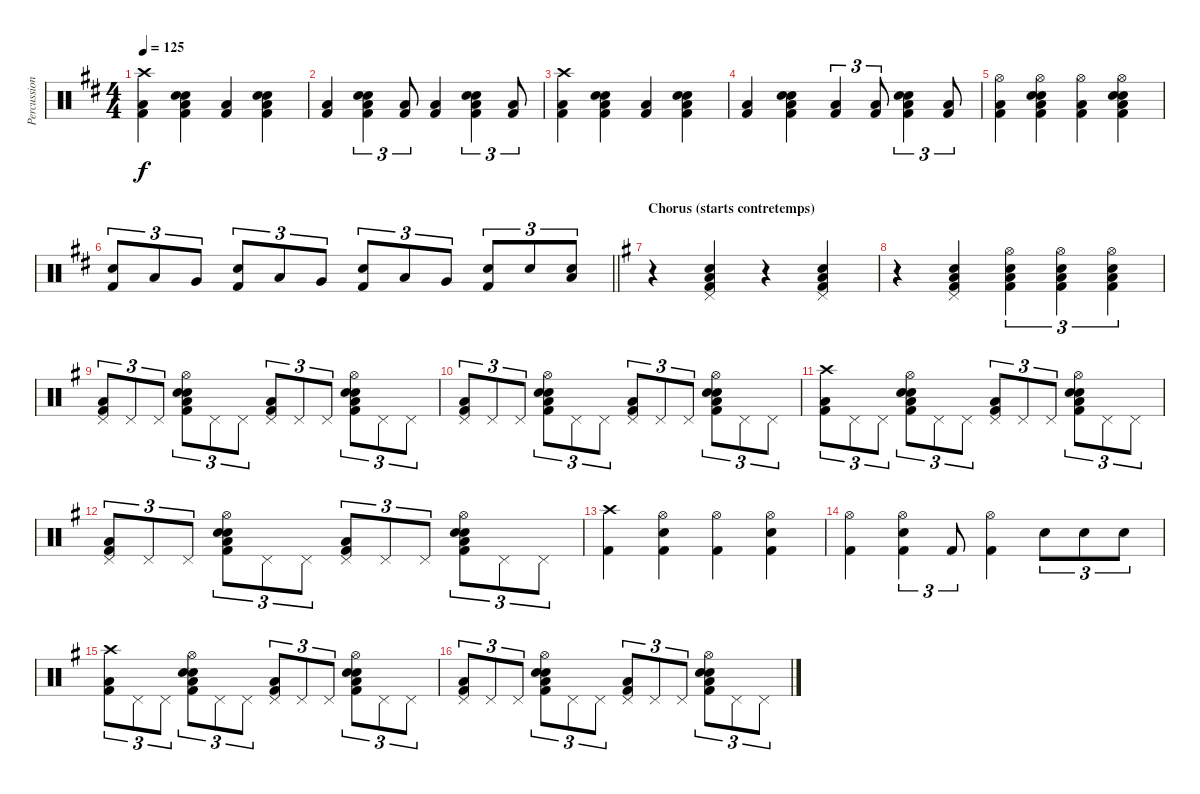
\track ("Percussion" "Percussion") {instrument percussion}
\staff {score}
\articulation defaults
\ts (4 4)
\tempo 125
\clef neutral
\ks bminor
("Crash high (hit)" "Low Floor Tom (hit)" "Kick (hit) 2").4{dy f} ("Electric Snare (hit)" "Hand Clap (hit)" "Low Floor Tom (hit)" "Kick (hit) 2").4 ("Low Floor Tom (hit)" "Kick (hit) 2").4 ("Electric Snare (hit)" "Hand Clap (hit)" "Low Floor Tom (hit)" "Kick (hit) 2").4 |
("Low Floor Tom (hit)" "Kick (hit) 2").4 ("Electric Snare (hit)" "Hand Clap (hit)" "Low Floor Tom (hit)" "Kick (hit) 2").4{tu (3 2)} ("Low Floor Tom (hit)" "Kick (hit) 2").8{tu (3 2)} ("Low Floor Tom (hit)" "Kick (hit) 2").4 ("Electric Snare (hit)" "Hand Clap (hit)" "Low Floor Tom (hit)" "Kick (hit) 2").4{tu (3 2)} ("Low Floor Tom (hit)" "Kick (hit) 2").8{tu (3 2)} |
("Crash high (hit)" "Low Floor Tom (hit)" "Kick (hit) 2").4 ("Electric Snare (hit)" "Hand Clap (hit)" "Low Floor Tom (hit)" "Kick (hit) 2").4 ("Low Floor Tom (hit)" "Kick (hit) 2").4 ("Electric Snare (hit)" "Hand Clap (hit)" "Low Floor Tom (hit)" "Kick (hit) 2").4 |
("Low Floor Tom (hit)" "Kick (hit) 2").4 ("Electric Snare (hit)" "Hand Clap (hit)" "Low Floor Tom (hit)" "Kick (hit) 2").4 ("Low Floor Tom (hit)" "Kick (hit) 2").4{tu (3 2)} ("Low Floor Tom (hit)" "Kick (hit) 2").8{tu (3 2)} ("Electric Snare (hit)" "Hand Clap (hit)" "Low Floor Tom (hit)" "Kick (hit) 2").4{tu (3 2)} ("Low Floor Tom (hit)" "Kick (hit) 2").8{tu (3 2)} |
("Hi-Hat (open)" "Low Floor Tom (hit)" "Kick (hit) 2").4 ("Hi-Hat (open)" "Electric Snare (hit)" "Hand Clap (hit)" "Low Floor Tom (hit)" "Kick (hit) 2").4 ("Hi-Hat (open)" "Low Floor Tom (hit)" "Kick (hit) 2").4 ("Hi-Hat (open)" "Electric Snare (hit)" "Hand Clap (hit)" "Low Floor Tom (hit)" "Kick (hit) 2").4 |
\barLineRight lightlight
("Electric Snare (hit)" "Kick (hit) 2").8{tu (3 2)} "Low Tom (hit)".8{tu (3 2)} "Very Low Tom (hit)".8{tu (3 2)} ("Electric Snare (hit)" "Kick (hit) 2").8{tu (3 2)} "Low Tom (hit)".8{tu (3 2)} "Very Low Tom (hit)".8{tu (3 2)} ("Electric Snare (hit)" "Kick (hit) 2").8{tu (3 2)} "Low Tom (hit)".8{tu (3 2)} "Very Low Tom (hit)".8{tu (3 2)} ("Electric Snare (hit)" "Kick (hit) 2").8{tu (3 2)} "Electric Snare (hit)".8{tu (3 2)} ("Electric Snare (hit)" "Low Floor Tom (hit)").8{tu (3 2)} |
\section ("" "Chorus (starts contretemps)")
\ks eminor
r.4 ("Pedal Hi-Hat (hit)" "Electric Snare (hit)" "Low Floor Tom (hit)" "Kick (hit) 2").4 r.4 ("Pedal Hi-Hat (hit)" "Electric Snare (hit)" "Low Floor Tom (hit)" "Kick (hit) 2").4 |
r.4 ("Pedal Hi-Hat (hit)" "Electric Snare (hit)" "Low Floor Tom (hit)" "Kick (hit) 2").4 ("Hi-Hat (open)" "Electric Snare (hit)" "Low Floor Tom (hit)" "Kick (hit) 2").4{tu (3 2)} ("Hi-Hat (open)" "Electric Snare (hit)" "Low Floor Tom (hit)" "Kick (hit) 2").4{tu (3 2)} ("Hi-Hat (open)" "Electric Snare (hit)" "Low Floor Tom (hit)" "Kick (hit) 2").4{tu (3 2)} |
("Pedal Hi-Hat (hit)" "Low Floor Tom (hit)" "Kick (hit) 2").8{tu (3 2)} "Pedal Hi-Hat (hit)".8{tu (3 2)} "Pedal Hi-Hat (hit)".8{tu (3 2)} ("Hi-Hat (open)" "Electric Snare (hit)" "Hand Clap (hit)" "Low Floor Tom (hit)" "Kick (hit) 2").8{tu (3 2)} "Pedal Hi-Hat (hit)".8{tu (3 2)} "Pedal Hi-Hat (hit)".8{tu (3 2)} ("Pedal Hi-Hat (hit)" "Low Floor Tom (hit)" "Kick (hit) 2").8{tu (3 2)} "Pedal Hi-Hat (hit)".8{tu (3 2)} "Pedal Hi-Hat (hit)".8{tu (3 2)} ("Hi-Hat (open)" "Electric Snare (hit)" "Hand Clap (hit)" "Low Floor Tom (hit)" "Kick (hit) 2").8{tu (3 2)} "Pedal Hi-Hat (hit)".8{tu (3 2)} "Pedal Hi-Hat (hit)".8{tu (3 2)} |
("Pedal Hi-Hat (hit)" "Low Floor Tom (hit)" "Kick (hit) 2").8{tu (3 2)} "Pedal Hi-Hat (hit)".8{tu (3 2)} "Pedal Hi-Hat (hit)".8{tu (3 2)} ("Hi-Hat (open)" "Electric Snare (hit)" "Hand Clap (hit)" "Low Floor Tom (hit)" "Kick (hit) 2").8{tu (3 2)} "Pedal Hi-Hat (hit)".8{tu (3 2)} "Pedal Hi-Hat (hit)".8{tu (3 2)} ("Pedal Hi-Hat (hit)" "Low Floor Tom (hit)" "Kick (hit) 2").8{tu (3 2)} "Pedal Hi-Hat (hit)".8{tu (3 2)} "Pedal Hi-Hat (hit)".8{tu (3 2)} ("Hi-Hat (open)" "Electric Snare (hit)" "Hand Clap (hit)" "Low Floor Tom (hit)" "Kick (hit) 2").8{tu (3 2)} "Pedal Hi-Hat (hit)".8{tu (3 2)} "Pedal Hi-Hat (hit)".8{tu (3 2)} |
("Crash high (hit)" "Low Floor Tom (hit)" "Kick (hit) 2").8{tu (3 2)} "Pedal Hi-Hat (hit)".8{tu (3 2)} "Pedal Hi-Hat (hit)".8{tu (3 2)} ("Hi-Hat (open)" "Electric Snare (hit)" "Hand Clap (hit)" "Low Floor Tom (hit)" "Kick (hit) 2").8{tu (3 2)} "Pedal Hi-Hat (hit)".8{tu (3 2)} "Pedal Hi-Hat (hit)".8{tu (3 2)} ("Pedal Hi-Hat (hit)" "Low Floor Tom (hit)" "Kick (hit) 2").8{tu (3 2)} "Pedal Hi-Hat (hit)".8{tu (3 2)} "Pedal Hi-Hat (hit)".8{tu (3 2)} ("Hi-Hat (open)" "Electric Snare (hit)" "Hand Clap (hit)" "Low Floor Tom (hit)" "Kick (hit) 2").8{tu (3 2)} "Pedal Hi-Hat (hit)".8{tu (3 2)} "Pedal Hi-Hat (hit)".8{tu (3 2)} |
("Pedal Hi-Hat (hit)" "Low Floor Tom (hit)" "Kick (hit) 2").8{tu (3 2)} "Pedal Hi-Hat (hit)".8{tu (3 2)} "Pedal Hi-Hat (hit)".8{tu (3 2)} ("Hi-Hat (open)" "Electric Snare (hit)" "Hand Clap (hit)" "Low Floor Tom (hit)" "Kick (hit) 2").8{tu (3 2)} "Pedal Hi-Hat (hit)".8{tu (3 2)} "Pedal Hi-Hat (hit)".8{tu (3 2)} ("Pedal Hi-Hat (hit)" "Low Floor Tom (hit)" "Kick (hit) 2").8{tu (3 2)} "Pedal Hi-Hat (hit)".8{tu (3 2)} "Pedal Hi-Hat (hit)".8{tu (3 2)} ("Hi-Hat (open)" "Electric Snare (hit)" "Hand Clap (hit)" "Low Floor Tom (hit)" "Kick (hit) 2").8{tu (3 2)} "Pedal Hi-Hat (hit)".8{tu (3 2)} "Pedal Hi-Hat (hit)".8{tu (3 2)} |
("Crash high (hit)" "Kick (hit) 2").4 ("Hi-Hat (open)" "Electric Snare (hit)" "Kick (hit) 2").4 ("Hi-Hat (open)" "Kick (hit) 2").4 ("Hi-Hat (open)" "Electric Snare (hit)" "Kick (hit) 2").4 |
("Hi-Hat (open)" "Kick (hit) 2").4 ("Hi-Hat (open)" "Electric Snare (hit)" "Kick (hit) 2").4{tu (3 2)} "Kick (hit) 2".8{tu (3 2)} ("Hi-Hat (open)" "Kick (hit) 2").4 "Electric Snare (hit)".8{tu (3 2)} "Electric Snare (hit)".8{tu (3 2)} "Electric Snare (hit)".8{tu (3 2)} |
("Crash high (hit)" "Low Floor Tom (hit)" "Kick (hit) 2").8{tu (3 2)} "Pedal Hi-Hat (hit)".8{tu (3 2)} "Pedal Hi-Hat (hit)".8{tu (3 2)} ("Hi-Hat (open)" "Electric Snare (hit)" "Hand Clap (hit)" "Low Floor Tom (hit)" "Kick (hit) 2").8{tu (3 2)} "Pedal Hi-Hat (hit)".8{tu (3 2)} "Pedal Hi-Hat (hit)".8{tu (3 2)} ("Pedal Hi-Hat (hit)" "Low Floor Tom (hit)" "Kick (hit) 2").8{tu (3 2)} "Pedal Hi-Hat (hit)".8{tu (3 2)} "Pedal Hi-Hat (hit)".8{tu (3 2)} ("Hi-Hat (open)" "Electric Snare (hit)" "Hand Clap (hit)" "Low Floor Tom (hit)" "Kick (hit) 2").8{tu (3 2)} "Pedal Hi-Hat (hit)".8{tu (3 2)} "Pedal Hi-Hat (hit)".8{tu (3 2)} |
("Pedal Hi-Hat (hit)" "Low Floor Tom (hit)" "Kick (hit) 2").8{tu (3 2)} "Pedal Hi-Hat (hit)".8{tu (3 2)} "Pedal Hi-Hat (hit)".8{tu (3 2)} ("Hi-Hat (open)" "Electric Snare (hit)" "Hand Clap (hit)" "Low Floor Tom (hit)" "Kick (hit) 2").8{tu (3 2)} "Pedal Hi-Hat (hit)".8{tu (3 2)} "Pedal Hi-Hat (hit)".8{tu (3 2)} ("Pedal Hi-Hat (hit)" "Low Floor Tom (hit)" "Kick (hit) 2").8{tu (3 2)} "Pedal Hi-Hat (hit)".8{tu (3 2)} "Pedal Hi-Hat (hit)".8{tu (3 2)} ("Hi-Hat (open)" "Electric Snare (hit)" "Hand Clap (hit)" "Low Floor Tom (hit)" "Kick (hit) 2").8{tu (3 2)} "Pedal Hi-Hat (hit)".8{tu (3 2)} "Pedal Hi-Hat (hit)".8{tu (3 2)}
